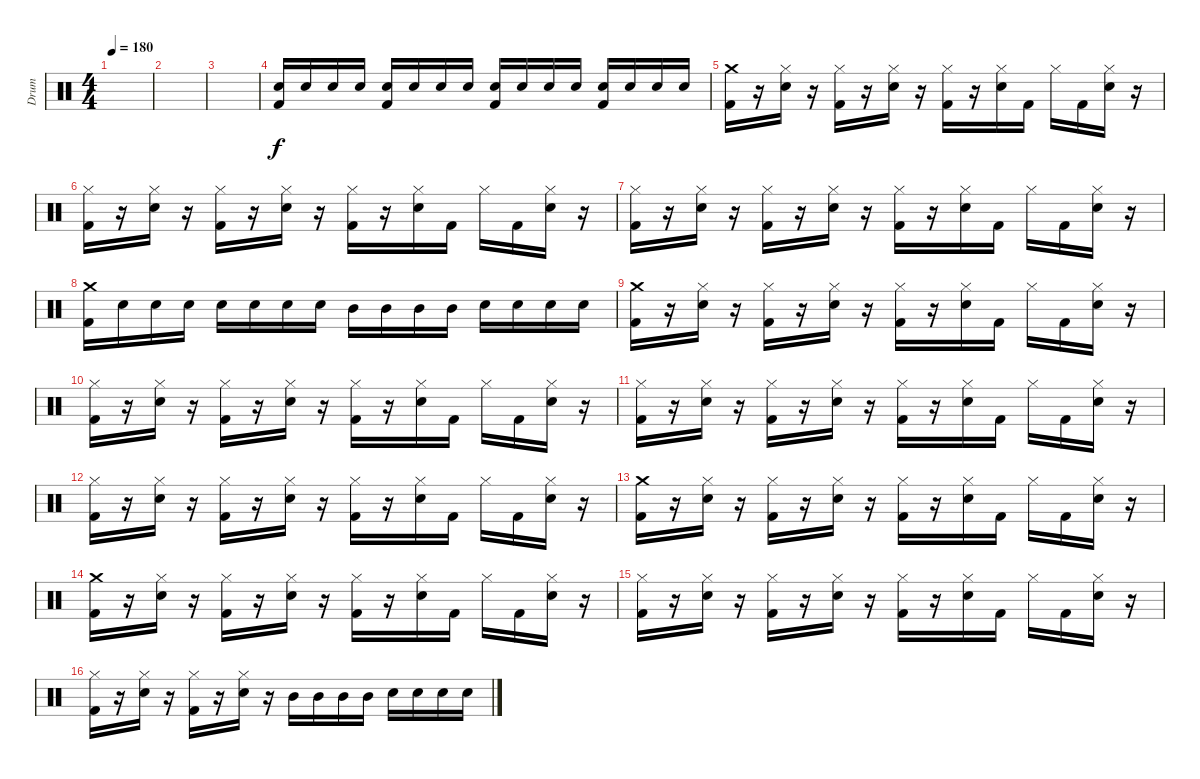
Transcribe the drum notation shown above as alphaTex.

\track ("Drum" "Drum") {instrument percussion}
\staff {score}
\articulation defaults
\ts (4 4)
\tempo 180
\clef neutral
\ks c
|
|
|
("Electric Snare (hit)" "Kick (hit) 2").16 "Electric Snare (hit)".16 "Electric Snare (hit)".16 "Electric Snare (hit)".16 ("Electric Snare (hit)" "Kick (hit) 2").16 "Electric Snare (hit)".16 "Electric Snare (hit)".16 "Electric Snare (hit)".16 ("Electric Snare (hit)" "Kick (hit) 2").16 "Electric Snare (hit)".16 "Electric Snare (hit)".16 "Electric Snare (hit)".16 ("Electric Snare (hit)" "Kick (hit) 2").16 "Electric Snare (hit)".16 "Electric Snare (hit)".16 "Electric Snare (hit)".16 |
("Crash medium (hit)" "Kick (hit) 2").16 r.16 ("Hi-Hat (closed)" "Electric Snare (hit)").16 r.16 ("Hi-Hat (closed)" "Kick (hit) 2").16 r.16 ("Hi-Hat (closed)" "Electric Snare (hit)").16 r.16 ("Hi-Hat (closed)" "Kick (hit) 2").16 r.16 ("Hi-Hat (closed)" "Electric Snare (hit)").16 "Kick (hit) 2".16 "Hi-Hat (closed)".16 "Kick (hit) 2".16 ("Hi-Hat (closed)" "Electric Snare (hit)").16 r.16 |
("Hi-Hat (closed)" "Kick (hit) 2").16 r.16 ("Hi-Hat (closed)" "Electric Snare (hit)").16 r.16 ("Hi-Hat (closed)" "Kick (hit) 2").16 r.16 ("Hi-Hat (closed)" "Electric Snare (hit)").16 r.16 ("Hi-Hat (closed)" "Kick (hit) 2").16 r.16 ("Hi-Hat (closed)" "Electric Snare (hit)").16 "Kick (hit) 2".16 "Hi-Hat (closed)".16 "Kick (hit) 2".16 ("Hi-Hat (closed)" "Electric Snare (hit)").16 r.16 |
("Hi-Hat (closed)" "Kick (hit) 2").16 r.16 ("Hi-Hat (closed)" "Electric Snare (hit)").16 r.16 ("Hi-Hat (closed)" "Kick (hit) 2").16 r.16 ("Hi-Hat (closed)" "Electric Snare (hit)").16 r.16 ("Hi-Hat (closed)" "Kick (hit) 2").16 r.16 ("Hi-Hat (closed)" "Electric Snare (hit)").16 "Kick (hit) 2".16 "Hi-Hat (closed)".16 "Kick (hit) 2".16 ("Hi-Hat (closed)" "Electric Snare (hit)").16 r.16 |
("Crash medium (hit)" "Kick (hit) 2").16 "Electric Snare (hit)".16 "Electric Snare (hit)".16 "Electric Snare (hit)".16 "Electric Snare (hit)".16 "Electric Snare (hit)".16 "Electric Snare (hit)".16 "Electric Snare (hit)".16 "Mid Tom (hit)".16 "Mid Tom (hit)".16 "Mid Tom (hit)".16 "Mid Tom (hit)".16 "Electric Snare (hit)".16 "Electric Snare (hit)".16 "Electric Snare (hit)".16 "Electric Snare (hit)".16 |
("Crash medium (hit)" "Kick (hit) 2").16 r.16 ("Hi-Hat (closed)" "Electric Snare (hit)").16 r.16 ("Hi-Hat (closed)" "Kick (hit) 2").16 r.16 ("Hi-Hat (closed)" "Electric Snare (hit)").16 r.16 ("Hi-Hat (closed)" "Kick (hit) 2").16 r.16 ("Hi-Hat (closed)" "Electric Snare (hit)").16 "Kick (hit) 2".16 "Hi-Hat (closed)".16 "Kick (hit) 2".16 ("Hi-Hat (closed)" "Electric Snare (hit)").16 r.16 |
("Hi-Hat (closed)" "Kick (hit) 2").16 r.16 ("Hi-Hat (closed)" "Electric Snare (hit)").16 r.16 ("Hi-Hat (closed)" "Kick (hit) 2").16 r.16 ("Hi-Hat (closed)" "Electric Snare (hit)").16 r.16 ("Hi-Hat (closed)" "Kick (hit) 2").16 r.16 ("Hi-Hat (closed)" "Electric Snare (hit)").16 "Kick (hit) 2".16 "Hi-Hat (closed)".16 "Kick (hit) 2".16 ("Hi-Hat (closed)" "Electric Snare (hit)").16 r.16 |
("Hi-Hat (closed)" "Kick (hit) 2").16 r.16 ("Hi-Hat (closed)" "Electric Snare (hit)").16 r.16 ("Hi-Hat (closed)" "Kick (hit) 2").16 r.16 ("Hi-Hat (closed)" "Electric Snare (hit)").16 r.16 ("Hi-Hat (closed)" "Kick (hit) 2").16 r.16 ("Hi-Hat (closed)" "Electric Snare (hit)").16 "Kick (hit) 2".16 "Hi-Hat (closed)".16 "Kick (hit) 2".16 ("Hi-Hat (closed)" "Electric Snare (hit)").16 r.16 |
("Hi-Hat (closed)" "Kick (hit) 2").16 r.16 ("Hi-Hat (closed)" "Electric Snare (hit)").16 r.16 ("Hi-Hat (closed)" "Kick (hit) 2").16 r.16 ("Hi-Hat (closed)" "Electric Snare (hit)").16 r.16 ("Hi-Hat (closed)" "Kick (hit) 2").16 r.16 ("Hi-Hat (closed)" "Electric Snare (hit)").16 "Kick (hit) 2".16 "Hi-Hat (closed)".16 "Kick (hit) 2".16 ("Hi-Hat (closed)" "Electric Snare (hit)").16 r.16 |
("Crash medium (hit)" "Kick (hit) 2").16 r.16 ("Hi-Hat (closed)" "Electric Snare (hit)").16 r.16 ("Hi-Hat (closed)" "Kick (hit) 2").16 r.16 ("Hi-Hat (closed)" "Electric Snare (hit)").16 r.16 ("Hi-Hat (closed)" "Kick (hit) 2").16 r.16 ("Hi-Hat (closed)" "Electric Snare (hit)").16 "Kick (hit) 2".16 "Hi-Hat (closed)".16 "Kick (hit) 2".16 ("Hi-Hat (closed)" "Electric Snare (hit)").16 r.16 |
("Crash medium (hit)" "Kick (hit) 2").16 r.16 ("Hi-Hat (closed)" "Electric Snare (hit)").16 r.16 ("Hi-Hat (closed)" "Kick (hit) 2").16 r.16 ("Hi-Hat (closed)" "Electric Snare (hit)").16 r.16 ("Hi-Hat (closed)" "Kick (hit) 2").16 r.16 ("Hi-Hat (closed)" "Electric Snare (hit)").16 "Kick (hit) 2".16 "Hi-Hat (closed)".16 "Kick (hit) 2".16 ("Hi-Hat (closed)" "Electric Snare (hit)").16 r.16 |
("Hi-Hat (closed)" "Kick (hit) 2").16 r.16 ("Hi-Hat (closed)" "Electric Snare (hit)").16 r.16 ("Hi-Hat (closed)" "Kick (hit) 2").16 r.16 ("Hi-Hat (closed)" "Electric Snare (hit)").16 r.16 ("Hi-Hat (closed)" "Kick (hit) 2").16 r.16 ("Hi-Hat (closed)" "Electric Snare (hit)").16 "Kick (hit) 2".16 "Hi-Hat (closed)".16 "Kick (hit) 2".16 ("Hi-Hat (closed)" "Electric Snare (hit)").16 r.16 |
("Hi-Hat (closed)" "Kick (hit) 2").16 r.16 ("Hi-Hat (closed)" "Electric Snare (hit)").16 r.16 ("Hi-Hat (closed)" "Kick (hit) 2").16 r.16 ("Hi-Hat (closed)" "Electric Snare (hit)").16 r.16 "Mid Tom (hit)".16 "Mid Tom (hit)".16 "Mid Tom (hit)".16 "Mid Tom (hit)".16 "Electric Snare (hit)".16 "Electric Snare (hit)".16 "Electric Snare (hit)".16 "Electric Snare (hit)".16
